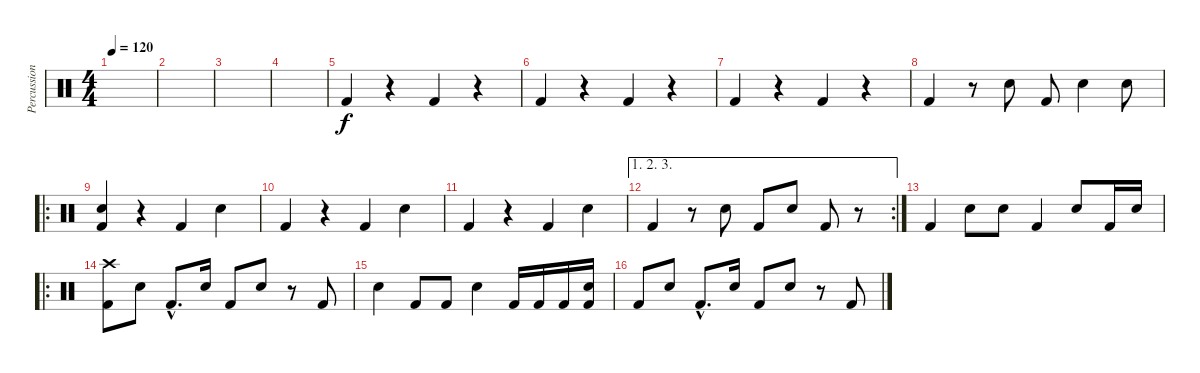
\track ("Percussions" "Percussion") {instrument percussion}
\staff {score}
\articulation defaults
\ts (4 4)
\tempo 120
\clef neutral
\ks c
|
|
|
|
"Kick (hit) 2".4 r.4 "Kick (hit) 2".4 r.4 |
"Kick (hit) 2".4 r.4 "Kick (hit) 2".4 r.4 |
"Kick (hit) 2".4 r.4 "Kick (hit) 2".4 r.4 |
"Kick (hit) 2".4 r.8 "Snare (hit) 2".8 "Kick (hit) 2".8 "Snare (hit) 2".4 "Snare (hit) 2".8 |
\ro
("Snare (hit) 2" "Kick (hit) 2").4 r.4 "Kick (hit) 2".4 "Snare (hit) 2".4 |
"Kick (hit) 2".4 r.4 "Kick (hit) 2".4 "Snare (hit) 2".4 |
"Kick (hit) 2".4 r.4 "Kick (hit) 2".4 "Snare (hit) 2".4 |
\ae (1 2 3)
\rc 2 "Kick (hit) 2".4
r.8 "Snare (hit) 2".8 "Kick (hit) 2".8 "Snare (hit) 2".8 "Kick (hit) 2".8 r.8 |
"Kick (hit) 2".4 "Snare (hit) 2".8 "Snare (hit) 2".8 "Kick (hit) 2".4 "Snare (hit) 2".8 "Kick (hit) 2".16 "Snare (hit) 2".16 |
\ro
("Crash high (hit)" "Kick (hit) 2").8 "Snare (hit) 2".8 "Kick (hit) 2"{hac}.8{d} "Snare (hit) 2".16 "Kick (hit) 2".8 "Snare (hit) 2".8 r.8 "Kick (hit) 2".8 |
"Snare (hit) 2".4 "Kick (hit) 2".8 "Kick (hit) 2".8 "Snare (hit) 2".4 "Kick (hit) 2".16 "Kick (hit) 2".16 "Kick (hit) 2".16 ("Snare (hit) 2" "Kick (hit) 2").16 |
"Kick (hit) 2".8 "Snare (hit) 2".8 "Kick (hit) 2"{hac}.8{d} "Snare (hit) 2".16 "Kick (hit) 2".8 "Snare (hit) 2".8 r.8 "Kick (hit) 2".8
